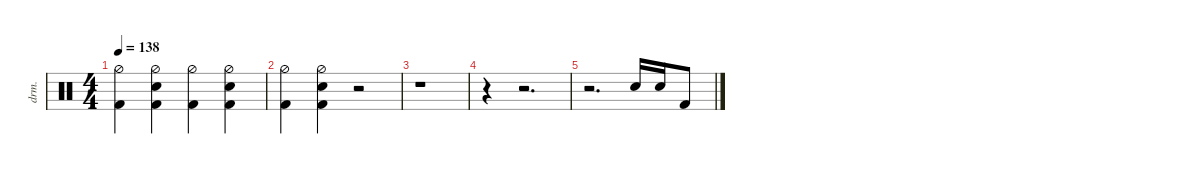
\defaultSystemsLayout 4
\hideDynamics
\bracketExtendMode nobrackets
\otherSystemsTrackNameOrientation horizontal
\track ("Drumkit" "drm.") {instrument percussion bank 128}
\staff {score}
\articulation defaults
\ts (4 4)
\tempo 138
\clef neutral
\ks c
("Kick (hit) 2" "Hi-Hat (half)").4{dy mf beam Down} ("Kick (hit) 2" "Snare (hit) 2" "Hi-Hat (half)").4{beam Down} ("Kick (hit) 2" "Hi-Hat (half)").4{beam Down} ("Kick (hit) 2" "Snare (hit) 2" "Hi-Hat (half)").4{beam Down} |
("Kick (hit) 2" "Hi-Hat (half)").4{beam Down} ("Kick (hit) 2" "Snare (hit) 2" "Hi-Hat (half)").4{beam Down} r.2{beam Down} |
r.1{beam Down} |
r.4{beam Down} r.2{d beam Down} |
r.2{d beam Down} "Snare (hit) 2".16{beam Up} "Snare (hit) 2".16{beam Up} "Kick (hit) 2".8{beam Up}
